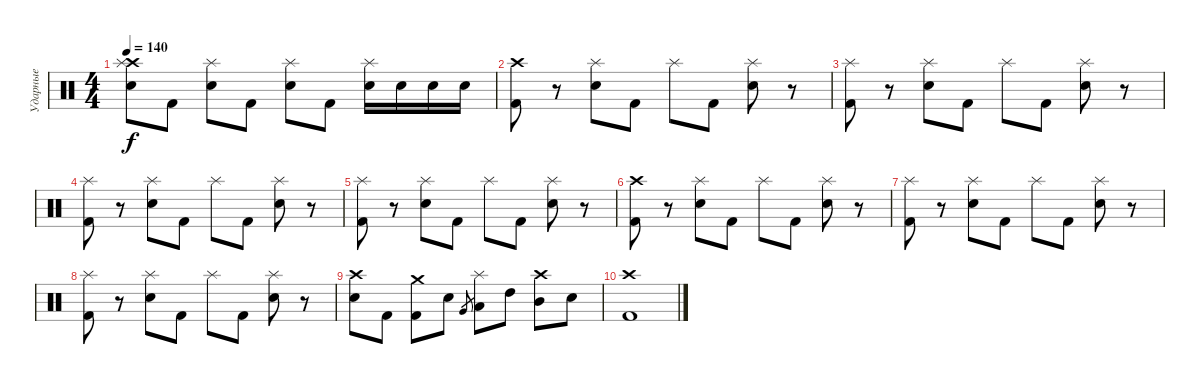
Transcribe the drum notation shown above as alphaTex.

\track ("Ударные" "Ударные") {instrument percussion}
\staff {score}
\articulation defaults
\ts (4 4)
\tempo 140
\clef neutral
\ks c
("Crash high (hit)" "Splash (hit)" "Electric Snare (hit)").8{dy f} "Kick (hit) 2".8 ("Splash (hit)" "Electric Snare (hit)").8 "Kick (hit) 2".8 ("Splash (hit)" "Electric Snare (hit)").8 "Kick (hit) 2".8 ("Splash (hit)" "Electric Snare (hit)").16 "Electric Snare (hit)".16 "Electric Snare (hit)".16 "Electric Snare (hit)".16 |
("Crash high (hit)" "Kick (hit) 2").8 r.8 ("Splash (hit)" "Electric Snare (hit)").8 "Kick (hit) 2".8 "Splash (hit)".8 "Kick (hit) 2".8 ("Splash (hit)" "Electric Snare (hit)").8 r.8 |
("Splash (hit)" "Kick (hit) 2").8 r.8 ("Splash (hit)" "Electric Snare (hit)").8 "Kick (hit) 2".8 "Splash (hit)".8 "Kick (hit) 2".8 ("Splash (hit)" "Electric Snare (hit)").8 r.8 |
("Splash (hit)" "Kick (hit) 2").8 r.8 ("Splash (hit)" "Electric Snare (hit)").8 "Kick (hit) 2".8 "Splash (hit)".8 "Kick (hit) 2".8 ("Splash (hit)" "Electric Snare (hit)").8 r.8 |
("Splash (hit)" "Kick (hit) 2").8 r.8 ("Splash (hit)" "Electric Snare (hit)").8 "Kick (hit) 2".8 "Splash (hit)".8 "Kick (hit) 2".8 ("Splash (hit)" "Electric Snare (hit)").8 r.8 |
("Crash high (hit)" "Kick (hit) 2").8 r.8 ("Splash (hit)" "Electric Snare (hit)").8 "Kick (hit) 2".8 "Splash (hit)".8 "Kick (hit) 2".8 ("Splash (hit)" "Electric Snare (hit)").8 r.8 |
("Splash (hit)" "Kick (hit) 2").8 r.8 ("Splash (hit)" "Electric Snare (hit)").8 "Kick (hit) 2".8 "Splash (hit)".8 "Kick (hit) 2".8 ("Splash (hit)" "Electric Snare (hit)").8 r.8 |
("Splash (hit)" "Kick (hit) 2").8 r.8 ("Splash (hit)" "Electric Snare (hit)").8 "Kick (hit) 2".8 "Splash (hit)".8 "Kick (hit) 2".8 ("Splash (hit)" "Electric Snare (hit)").8 r.8 |
("Crash high (hit)" "Electric Snare (hit)").8 "Kick (hit) 2".8 ("Crash medium (hit)" "Kick (hit) 2").8 "Electric Snare (hit)".8 "Very Low Tom (hit)".8{gr} ("Splash (hit)" "Low Tom (hit)").8 "High Tom (hit)".8 ("Crash high (hit)" "Mid Tom (hit)").8 "Electric Snare (hit)".8 |
("Crash high (hit)" "Kick (hit) 2").1
